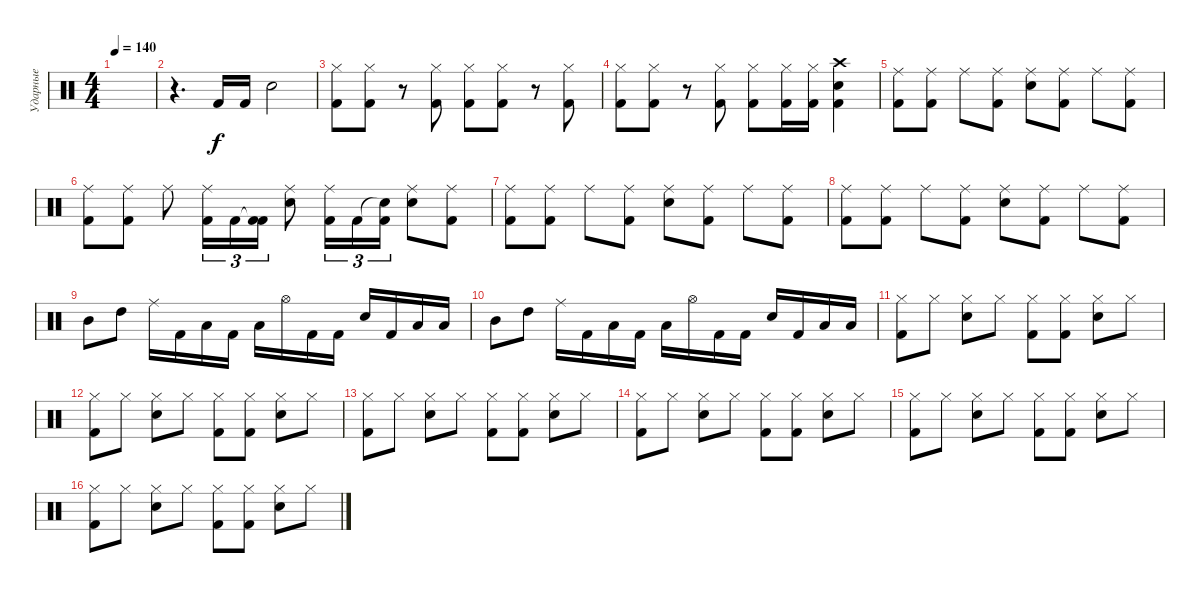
\track ("Ударные" "Ударные") {instrument percussion}
\staff {score}
\articulation defaults
\ts (4 4)
\tempo 140
\clef neutral
\ks c
|
r.4{d} "Kick (hit) 2".16 "Kick (hit) 2".16 "Snare (hit) 2".2 |
("Kick (hit) 2" "Hi-Hat (closed)").8 ("Kick (hit) 2" "Hi-Hat (closed)").8 r.8 ("Kick (hit) 2" "Hi-Hat (closed)").8 ("Kick (hit) 2" "Hi-Hat (closed)").8 ("Kick (hit) 2" "Hi-Hat (closed)").8 r.8 ("Kick (hit) 2" "Hi-Hat (closed)").8 |
("Kick (hit) 2" "Hi-Hat (closed)").8 ("Kick (hit) 2" "Hi-Hat (closed)").8 r.8 ("Kick (hit) 2" "Hi-Hat (closed)").8 ("Kick (hit) 2" "Hi-Hat (closed)").8 ("Kick (hit) 2" "Hi-Hat (closed)").16 ("Kick (hit) 2" "Hi-Hat (closed)").16 ("Snare (hit) 2" "Kick (hit) 2" "Crash high (hit)").4 |
("Kick (hit) 2" "Ride (middle)").8 ("Kick (hit) 2" "Ride (middle)").8 "Ride (middle)".8 ("Kick (hit) 2" "Ride (middle)").8 ("Snare (hit) 2" "Ride (middle)").8 ("Kick (hit) 2" "Ride (middle)").8 "Ride (middle)".8 ("Kick (hit) 2" "Ride (middle)").8 |
("Kick (hit) 2" "Ride (middle)").8 ("Kick (hit) 2" "Ride (middle)").8 "Ride (middle)".8 ("Ride (middle)" "Kick (hit) 2").16{tu (3 2)} "Kick (hit) 2".16{tu (3 2)} ("Kick (hit) 2"{t} "Kick (hit) 2").16{tu (3 2)} ("Ride (middle)" "Snare (hit) 2").8 ("Ride (middle)" "Kick (hit) 2").16{tu (3 2)} "Kick (hit) 2".16{tu (3 2)} ("Snare (hit)"{t} "Kick (hit) 2").16{tu (3 2)} ("Ride (middle)" "Snare (hit) 2").8 ("Ride (middle)" "Kick (hit) 2").8 |
("Kick (hit) 2" "Ride (middle)").8 ("Kick (hit) 2" "Ride (middle)").8 "Ride (middle)".8 ("Kick (hit) 2" "Ride (middle)").8 ("Snare (hit) 2" "Ride (middle)").8 ("Kick (hit) 2" "Ride (middle)").8 "Ride (middle)".8 ("Kick (hit) 2" "Ride (middle)").8 |
("Kick (hit) 2" "Ride (middle)").8 ("Kick (hit) 2" "Ride (middle)").8 "Ride (middle)".8 ("Kick (hit) 2" "Ride (middle)").8 ("Snare (hit) 2" "Ride (middle)").8 ("Kick (hit) 2" "Ride (middle)").8 "Ride (middle)".8 ("Kick (hit) 2" "Ride (middle)").8 |
"Mid Tom (hit)".8 "High Tom (hit)".8 "Ride (middle)".16 "Kick (hit) 2".16 "Low Floor Tom (hit)".16 "Kick (hit) 2".16 "Low Tom (hit)".16 "Hi-Hat (open)".16 "Kick (hit) 2".16 "Kick (hit) 2".16 "Snare (hit) 2".16 "Kick (hit) 2".16 "Low Tom (hit)".16 "Low Floor Tom (hit)".16 |
"Mid Tom (hit)".8 "High Tom (hit)".8 "Ride (middle)".16 "Kick (hit) 2".16 "Low Floor Tom (hit)".16 "Kick (hit) 2".16 "Low Tom (hit)".16 "Hi-Hat (open)".16 "Kick (hit) 2".16 "Kick (hit) 2".16 "Snare (hit) 2".16 "Kick (hit) 2".16 "Low Tom (hit)".16 "Low Floor Tom (hit)".16 |
("Hi-Hat (closed)" "Kick (hit) 2").8 "Hi-Hat (closed)".8 ("Hi-Hat (closed)" "Snare (hit) 2").8 "Hi-Hat (closed)".8 ("Kick (hit) 2" "Hi-Hat (closed)").8 ("Kick (hit) 2" "Hi-Hat (closed)").8 ("Snare (hit) 2" "Hi-Hat (closed)").8 "Hi-Hat (closed)".8 |
("Hi-Hat (closed)" "Kick (hit) 2").8 "Hi-Hat (closed)".8 ("Hi-Hat (closed)" "Snare (hit) 2").8 "Hi-Hat (closed)".8 ("Kick (hit) 2" "Hi-Hat (closed)").8 ("Kick (hit) 2" "Hi-Hat (closed)").8 ("Snare (hit) 2" "Hi-Hat (closed)").8 "Hi-Hat (closed)".8 |
("Hi-Hat (closed)" "Kick (hit) 2").8 "Hi-Hat (closed)".8 ("Hi-Hat (closed)" "Snare (hit) 2").8 "Hi-Hat (closed)".8 ("Kick (hit) 2" "Hi-Hat (closed)").8 ("Kick (hit) 2" "Hi-Hat (closed)").8 ("Snare (hit) 2" "Hi-Hat (closed)").8 "Hi-Hat (closed)".8 |
("Hi-Hat (closed)" "Kick (hit) 2").8 "Hi-Hat (closed)".8 ("Hi-Hat (closed)" "Snare (hit) 2").8 "Hi-Hat (closed)".8 ("Kick (hit) 2" "Hi-Hat (closed)").8 ("Kick (hit) 2" "Hi-Hat (closed)").8 ("Snare (hit) 2" "Hi-Hat (closed)").8 "Hi-Hat (closed)".8 |
("Hi-Hat (closed)" "Kick (hit) 2").8 "Hi-Hat (closed)".8 ("Hi-Hat (closed)" "Snare (hit) 2").8 "Hi-Hat (closed)".8 ("Kick (hit) 2" "Hi-Hat (closed)").8 ("Kick (hit) 2" "Hi-Hat (closed)").8 ("Snare (hit) 2" "Hi-Hat (closed)").8 "Hi-Hat (closed)".8 |
("Hi-Hat (closed)" "Kick (hit) 2").8 "Hi-Hat (closed)".8 ("Hi-Hat (closed)" "Snare (hit) 2").8 "Hi-Hat (closed)".8 ("Kick (hit) 2" "Hi-Hat (closed)").8 ("Kick (hit) 2" "Hi-Hat (closed)").8 ("Snare (hit) 2" "Hi-Hat (closed)").8 "Hi-Hat (closed)".8
